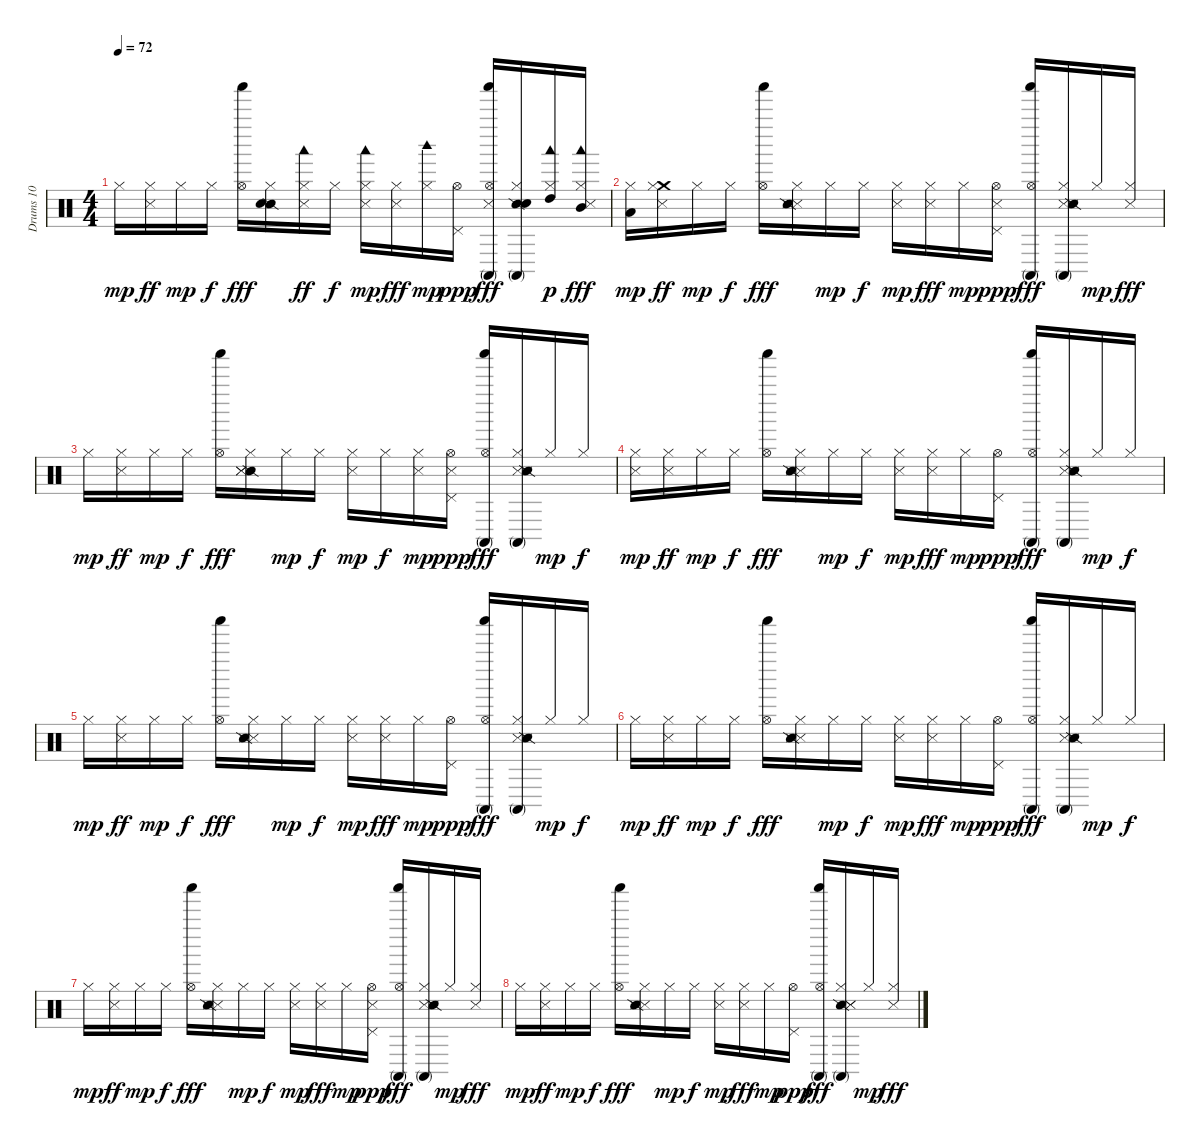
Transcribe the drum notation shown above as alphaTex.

\track ("Drums 10" "Drums 10") {instrument percussion}
\staff {score}
\articulation defaults
\ts (4 4)
\tempo 72
\clef neutral
\ks c "Hi-Hat (closed)".16{dy mp}
("Metronome (hit)" "Hi-Hat (closed)").16{dy ff} "Hi-Hat (closed)".16{dy mp} "Hi-Hat (closed)".16{dy f} ("Hi-Hat (open)" "Shaker (hit)").16{dy fff} ("Snare (side stick) 2" "Hi-Hat (closed)" "Metronome (bell)").16 ("Hi-Hat (closed)" "Metronome (hit)" "Woodblock low (hit)").16{dy ff} "Hi-Hat (closed)".16{dy f} ("Hi-Hat (closed)" "Metronome (hit)" "Woodblock low (hit)").16{dy mp} ("Metronome (hit)" "Hi-Hat (closed)").16{dy fff} ("Hi-Hat (closed)" "Woodblock high (hit)").16{dy mp} ("Hi-Hat (open)" "Pedal Hi-Hat (hit)").16{dy ppp} ("Conga high (mute)" "Metronome (hit)" "Hi-Hat (open)" "Shaker (hit)").16{dy fff} ("Snare (side stick) 2" "Metronome (bell)" "Conga high (mute)" "Hi-Hat (closed)").16 ("High Tom (hit)" "Hi-Hat (closed)" "Woodblock low (hit)").16{dy p} ("Mid Tom (hit)" "Hi-Hat (closed)" "Woodblock low (hit)" "Metronome (hit)").16{dy fff} |
("Hi-Hat (closed)" "Low Tom (hit)").16{dy mp} ("Metronome (hit)" "Crash medium (hit)" "Hi-Hat (closed)").16{dy ff} "Hi-Hat (closed)".16{dy mp} "Hi-Hat (closed)".16{dy f} ("Hi-Hat (open)" "Shaker (hit)").16{dy fff} ("Snare (side stick) 3" "Snare (side stick) 3" "Snare (side stick) 2" "Hi-Hat (closed)").16 "Hi-Hat (closed)".16{dy mp} "Hi-Hat (closed)".16{dy f} ("Metronome (hit)" "Hi-Hat (closed)").16{dy mp} ("Metronome (hit)" "Hi-Hat (closed)").16{dy fff} "Hi-Hat (closed)".16{dy mp} ("Metronome (hit)" "Hi-Hat (open)" "Pedal Hi-Hat (hit)").16{dy ppp} ("Hi-Hat (open)" "Conga high (mute)" "Shaker (hit)").16{dy fff} ("Snare (side stick) 3" "Snare (side stick) 3" "Snare (side stick) 2" "Conga high (mute)" "Hi-Hat (closed)").16 "Hi-Hat (closed)".16{dy mp} ("Hi-Hat (closed)" "Metronome (hit)").16{dy fff} |
"Hi-Hat (closed)".16{dy mp} ("Metronome (hit)" "Hi-Hat (closed)").16{dy ff} "Hi-Hat (closed)".16{dy mp} "Hi-Hat (closed)".16{dy f} ("Hi-Hat (open)" "Shaker (hit)").16{dy fff} ("Hi-Hat (closed)" "Snare (side stick) 2" "Snare (side stick) 3" "Snare (side stick) 3").16 "Hi-Hat (closed)".16{dy mp} "Hi-Hat (closed)".16{dy f} ("Hi-Hat (closed)" "Metronome (hit)").16{dy mp} "Hi-Hat (closed)".16{dy f} ("Metronome (hit)" "Hi-Hat (closed)").16{dy mp} ("Hi-Hat (open)" "Metronome (hit)" "Pedal Hi-Hat (hit)").16{dy ppp} ("Hi-Hat (open)" "Conga high (mute)" "Shaker (hit)").16{dy fff} ("Conga high (mute)" "Snare (side stick) 3" "Snare (side stick) 2" "Snare (side stick) 3" "Hi-Hat (closed)").16 "Hi-Hat (closed)".16{dy mp} "Hi-Hat (closed)".16{dy f} |
("Metronome (hit)" "Hi-Hat (closed)").16{dy mp} ("Hi-Hat (closed)" "Metronome (hit)").16{dy ff} "Hi-Hat (closed)".16{dy mp} "Hi-Hat (closed)".16{dy f} ("Hi-Hat (open)" "Shaker (hit)").16{dy fff} ("Hi-Hat (closed)" "Snare (side stick) 3" "Snare (side stick) 2" "Snare (side stick) 3").16 "Hi-Hat (closed)".16{dy mp} "Hi-Hat (closed)".16{dy f} ("Hi-Hat (closed)" "Metronome (hit)").16{dy mp} ("Hi-Hat (closed)" "Metronome (hit)").16{dy fff} "Hi-Hat (closed)".16{dy mp} ("Hi-Hat (open)" "Pedal Hi-Hat (hit)").16{dy ppp} ("Conga high (mute)" "Hi-Hat (open)" "Shaker (hit)").16{dy fff} ("Conga high (mute)" "Snare (side stick) 3" "Hi-Hat (closed)" "Snare (side stick) 3" "Snare (side stick) 2").16 "Hi-Hat (closed)".16{dy mp} "Hi-Hat (closed)".16{dy f} |
"Hi-Hat (closed)".16{dy mp} ("Metronome (hit)" "Hi-Hat (closed)").16{dy ff} "Hi-Hat (closed)".16{dy mp} "Hi-Hat (closed)".16{dy f} ("Hi-Hat (open)" "Shaker (hit)").16{dy fff} ("Snare (side stick) 3" "Hi-Hat (closed)" "Snare (side stick) 2" "Snare (side stick) 3").16 "Hi-Hat (closed)".16{dy mp} "Hi-Hat (closed)".16{dy f} ("Metronome (hit)" "Hi-Hat (closed)").16{dy mp} ("Hi-Hat (closed)" "Metronome (hit)").16{dy fff} "Hi-Hat (closed)".16{dy mp} ("Hi-Hat (open)" "Pedal Hi-Hat (hit)").16{dy ppp} ("Hi-Hat (open)" "Conga high (mute)" "Shaker (hit)").16{dy fff} ("Snare (side stick) 3" "Snare (side stick) 2" "Hi-Hat (closed)" "Snare (side stick) 3" "Conga high (mute)").16 "Hi-Hat (closed)".16{dy mp} "Hi-Hat (closed)".16{dy f} |
"Hi-Hat (closed)".16{dy mp} ("Metronome (hit)" "Hi-Hat (closed)").16{dy ff} "Hi-Hat (closed)".16{dy mp} "Hi-Hat (closed)".16{dy f} ("Hi-Hat (open)" "Shaker (hit)").16{dy fff} ("Snare (side stick) 3" "Snare (side stick) 2" "Snare (side stick) 3" "Hi-Hat (closed)").16 "Hi-Hat (closed)".16{dy mp} "Hi-Hat (closed)".16{dy f} ("Hi-Hat (closed)" "Metronome (hit)").16{dy mp} ("Metronome (hit)" "Hi-Hat (closed)").16{dy fff} "Hi-Hat (closed)".16{dy mp} ("Hi-Hat (open)" "Pedal Hi-Hat (hit)").16{dy ppp} ("Conga high (mute)" "Hi-Hat (open)" "Shaker (hit)").16{dy fff} ("Snare (side stick) 3" "Snare (side stick) 2" "Hi-Hat (closed)" "Conga high (mute)" "Snare (side stick) 3").16 "Hi-Hat (closed)".16{dy mp} "Hi-Hat (closed)".16{dy f} |
"Hi-Hat (closed)".16{dy mp} ("Metronome (hit)" "Hi-Hat (closed)").16{dy ff} "Hi-Hat (closed)".16{dy mp} "Hi-Hat (closed)".16{dy f} ("Hi-Hat (open)" "Shaker (hit)").16{dy fff} ("Snare (side stick) 3" "Hi-Hat (closed)" "Snare (side stick) 3" "Snare (side stick) 2").16 "Hi-Hat (closed)".16{dy mp} "Hi-Hat (closed)".16{dy f} ("Metronome (hit)" "Hi-Hat (closed)").16{dy mp} ("Metronome (hit)" "Hi-Hat (closed)").16{dy fff} "Hi-Hat (closed)".16{dy mp} ("Metronome (hit)" "Hi-Hat (open)" "Pedal Hi-Hat (hit)").16{dy ppp} ("Hi-Hat (open)" "Conga high (mute)" "Shaker (hit)").16{dy fff} ("Snare (side stick) 3" "Snare (side stick) 2" "Snare (side stick) 3" "Hi-Hat (closed)" "Conga high (mute)").16 "Hi-Hat (closed)".16{dy mp} ("Hi-Hat (closed)" "Metronome (hit)").16{dy fff} |
"Hi-Hat (closed)".16{dy mp} ("Metronome (hit)" "Hi-Hat (closed)").16{dy ff} "Hi-Hat (closed)".16{dy mp} "Hi-Hat (closed)".16{dy f} ("Hi-Hat (open)" "Shaker (hit)").16{dy fff} ("Snare (side stick) 3" "Snare (side stick) 2" "Snare (side stick) 3" "Hi-Hat (closed)").16 "Hi-Hat (closed)".16{dy mp} "Hi-Hat (closed)".16{dy f} ("Hi-Hat (closed)" "Metronome (hit)").16{dy mp} ("Hi-Hat (closed)" "Metronome (hit)").16{dy fff} "Hi-Hat (closed)".16{dy mp} ("Hi-Hat (open)" "Pedal Hi-Hat (hit)").16{dy ppp} ("Conga high (mute)" "Hi-Hat (open)" "Shaker (hit)").16{dy fff} ("Snare (side stick) 2" "Snare (side stick) 3" "Conga high (mute)" "Hi-Hat (closed)" "Snare (side stick) 3").16 "Hi-Hat (closed)".16{dy mp} ("Hi-Hat (closed)" "Metronome (hit)").16{dy fff}
